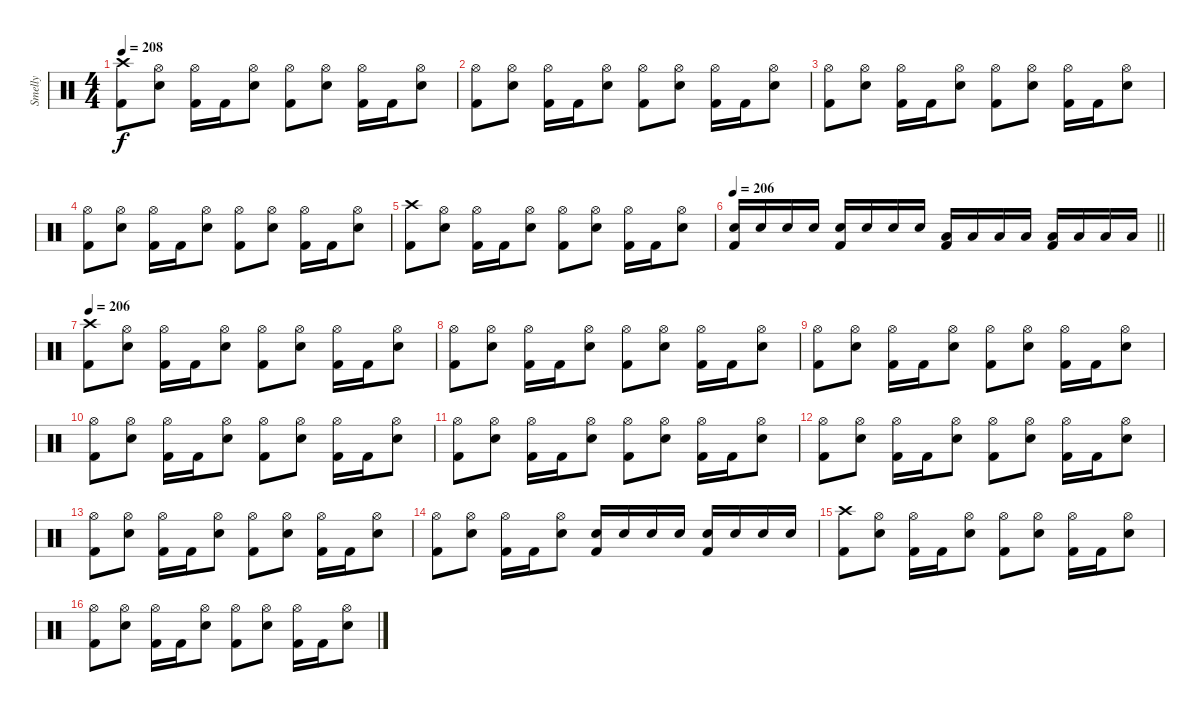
\track ("Smelly" "Smelly") {instrument percussion}
\staff {score}
\articulation defaults
\ts (4 4)
\tempo 208
\clef neutral
\ks c
("Crash high (hit)" "Kick (hit) 2").8{dy f} ("Hi-Hat (open)" "Electric Snare (hit)").8 ("Hi-Hat (open)" "Kick (hit) 2").16 "Kick (hit) 2".16 ("Hi-Hat (open)" "Electric Snare (hit)").8 ("Hi-Hat (open)" "Kick (hit) 2").8 ("Hi-Hat (open)" "Electric Snare (hit)").8 ("Hi-Hat (open)" "Kick (hit) 2").16 "Kick (hit) 2".16 ("Hi-Hat (open)" "Electric Snare (hit)").8 |
("Hi-Hat (open)" "Kick (hit) 2").8 ("Hi-Hat (open)" "Electric Snare (hit)").8 ("Hi-Hat (open)" "Kick (hit) 2").16 "Kick (hit) 2".16 ("Hi-Hat (open)" "Electric Snare (hit)").8 ("Hi-Hat (open)" "Kick (hit) 2").8 ("Hi-Hat (open)" "Electric Snare (hit)").8 ("Hi-Hat (open)" "Kick (hit) 2").16 "Kick (hit) 2".16 ("Hi-Hat (open)" "Electric Snare (hit)").8 |
("Hi-Hat (open)" "Kick (hit) 2").8 ("Hi-Hat (open)" "Electric Snare (hit)").8 ("Hi-Hat (open)" "Kick (hit) 2").16 "Kick (hit) 2".16 ("Hi-Hat (open)" "Electric Snare (hit)").8 ("Hi-Hat (open)" "Kick (hit) 2").8 ("Hi-Hat (open)" "Electric Snare (hit)").8 ("Hi-Hat (open)" "Kick (hit) 2").16 "Kick (hit) 2".16 ("Hi-Hat (open)" "Electric Snare (hit)").8 |
("Hi-Hat (open)" "Kick (hit) 2").8 ("Hi-Hat (open)" "Electric Snare (hit)").8 ("Hi-Hat (open)" "Kick (hit) 2").16 "Kick (hit) 2".16 ("Hi-Hat (open)" "Electric Snare (hit)").8 ("Hi-Hat (open)" "Kick (hit) 2").8 ("Hi-Hat (open)" "Electric Snare (hit)").8 ("Hi-Hat (open)" "Kick (hit) 2").16 "Kick (hit) 2".16 ("Hi-Hat (open)" "Electric Snare (hit)").8 |
("Crash high (hit)" "Kick (hit) 2").8 ("Hi-Hat (open)" "Electric Snare (hit)").8 ("Hi-Hat (open)" "Kick (hit) 2").16 "Kick (hit) 2".16 ("Hi-Hat (open)" "Electric Snare (hit)").8 ("Hi-Hat (open)" "Kick (hit) 2").8 ("Hi-Hat (open)" "Electric Snare (hit)").8 ("Hi-Hat (open)" "Kick (hit) 2").16 "Kick (hit) 2".16 ("Hi-Hat (open)" "Electric Snare (hit)").8 |
\tempo 206
\barLineRight lightlight
("Electric Snare (hit)" "Kick (hit) 2").16 "Electric Snare (hit)".16 "Electric Snare (hit)".16 "Electric Snare (hit)".16 ("Electric Snare (hit)" "Kick (hit) 2").16 "Electric Snare (hit)".16 "Electric Snare (hit)".16 "Electric Snare (hit)".16 ("Low Tom (hit)" "Kick (hit) 2").16 "Low Tom (hit)".16 "Low Tom (hit)".16 "Low Tom (hit)".16 ("Low Floor Tom (hit)" "Kick (hit) 2").16 "Low Floor Tom (hit)".16 "Low Floor Tom (hit)".16 "Low Floor Tom (hit)".16 |
\section ("" "")
\tempo 206
("Crash high (hit)" "Kick (hit) 2").8 ("Hi-Hat (open)" "Electric Snare (hit)").8 ("Hi-Hat (open)" "Kick (hit) 2").16 "Kick (hit) 2".16 ("Hi-Hat (open)" "Electric Snare (hit)").8 ("Hi-Hat (open)" "Kick (hit) 2").8 ("Hi-Hat (open)" "Electric Snare (hit)").8 ("Hi-Hat (open)" "Kick (hit) 2").16 "Kick (hit) 2".16 ("Hi-Hat (open)" "Electric Snare (hit)").8 |
("Hi-Hat (open)" "Kick (hit) 2").8 ("Hi-Hat (open)" "Electric Snare (hit)").8 ("Hi-Hat (open)" "Kick (hit) 2").16 "Kick (hit) 2".16 ("Hi-Hat (open)" "Electric Snare (hit)").8 ("Hi-Hat (open)" "Kick (hit) 2").8 ("Hi-Hat (open)" "Electric Snare (hit)").8 ("Hi-Hat (open)" "Kick (hit) 2").16 "Kick (hit) 2".16 ("Hi-Hat (open)" "Electric Snare (hit)").8 |
("Hi-Hat (open)" "Kick (hit) 2").8 ("Hi-Hat (open)" "Electric Snare (hit)").8 ("Hi-Hat (open)" "Kick (hit) 2").16 "Kick (hit) 2".16 ("Hi-Hat (open)" "Electric Snare (hit)").8 ("Hi-Hat (open)" "Kick (hit) 2").8 ("Hi-Hat (open)" "Electric Snare (hit)").8 ("Hi-Hat (open)" "Kick (hit) 2").16 "Kick (hit) 2".16 ("Hi-Hat (open)" "Electric Snare (hit)").8 |
("Hi-Hat (open)" "Kick (hit) 2").8 ("Hi-Hat (open)" "Electric Snare (hit)").8 ("Hi-Hat (open)" "Kick (hit) 2").16 "Kick (hit) 2".16 ("Hi-Hat (open)" "Electric Snare (hit)").8 ("Hi-Hat (open)" "Kick (hit) 2").8 ("Hi-Hat (open)" "Electric Snare (hit)").8 ("Hi-Hat (open)" "Kick (hit) 2").16 "Kick (hit) 2".16 ("Hi-Hat (open)" "Electric Snare (hit)").8 |
("Hi-Hat (open)" "Kick (hit) 2").8 ("Hi-Hat (open)" "Electric Snare (hit)").8 ("Hi-Hat (open)" "Kick (hit) 2").16 "Kick (hit) 2".16 ("Hi-Hat (open)" "Electric Snare (hit)").8 ("Hi-Hat (open)" "Kick (hit) 2").8 ("Hi-Hat (open)" "Electric Snare (hit)").8 ("Hi-Hat (open)" "Kick (hit) 2").16 "Kick (hit) 2".16 ("Hi-Hat (open)" "Electric Snare (hit)").8 |
("Hi-Hat (open)" "Kick (hit) 2").8 ("Hi-Hat (open)" "Electric Snare (hit)").8 ("Hi-Hat (open)" "Kick (hit) 2").16 "Kick (hit) 2".16 ("Hi-Hat (open)" "Electric Snare (hit)").8 ("Hi-Hat (open)" "Kick (hit) 2").8 ("Hi-Hat (open)" "Electric Snare (hit)").8 ("Hi-Hat (open)" "Kick (hit) 2").16 "Kick (hit) 2".16 ("Hi-Hat (open)" "Electric Snare (hit)").8 |
("Hi-Hat (open)" "Kick (hit) 2").8 ("Hi-Hat (open)" "Electric Snare (hit)").8 ("Hi-Hat (open)" "Kick (hit) 2").16 "Kick (hit) 2".16 ("Hi-Hat (open)" "Electric Snare (hit)").8 ("Hi-Hat (open)" "Kick (hit) 2").8 ("Hi-Hat (open)" "Electric Snare (hit)").8 ("Hi-Hat (open)" "Kick (hit) 2").16 "Kick (hit) 2".16 ("Hi-Hat (open)" "Electric Snare (hit)").8 |
("Hi-Hat (open)" "Kick (hit) 2").8 ("Hi-Hat (open)" "Electric Snare (hit)").8 ("Hi-Hat (open)" "Kick (hit) 2").16 "Kick (hit) 2".16 ("Hi-Hat (open)" "Electric Snare (hit)").8 ("Electric Snare (hit)" "Kick (hit) 2").16 "Electric Snare (hit)".16 "Electric Snare (hit)".16 "Electric Snare (hit)".16 ("Electric Snare (hit)" "Kick (hit) 2").16 "Electric Snare (hit)".16 "Electric Snare (hit)".16 "Electric Snare (hit)".16 |
("Crash high (hit)" "Kick (hit) 2").8 ("Hi-Hat (open)" "Electric Snare (hit)").8 ("Hi-Hat (open)" "Kick (hit) 2").16 "Kick (hit) 2".16 ("Hi-Hat (open)" "Electric Snare (hit)").8 ("Hi-Hat (open)" "Kick (hit) 2").8 ("Hi-Hat (open)" "Electric Snare (hit)").8 ("Hi-Hat (open)" "Kick (hit) 2").16 "Kick (hit) 2".16 ("Hi-Hat (open)" "Electric Snare (hit)").8 |
("Hi-Hat (open)" "Kick (hit) 2").8 ("Hi-Hat (open)" "Electric Snare (hit)").8 ("Hi-Hat (open)" "Kick (hit) 2").16 "Kick (hit) 2".16 ("Hi-Hat (open)" "Electric Snare (hit)").8 ("Hi-Hat (open)" "Kick (hit) 2").8 ("Hi-Hat (open)" "Electric Snare (hit)").8 ("Hi-Hat (open)" "Kick (hit) 2").16 "Kick (hit) 2".16 ("Hi-Hat (open)" "Electric Snare (hit)").8
